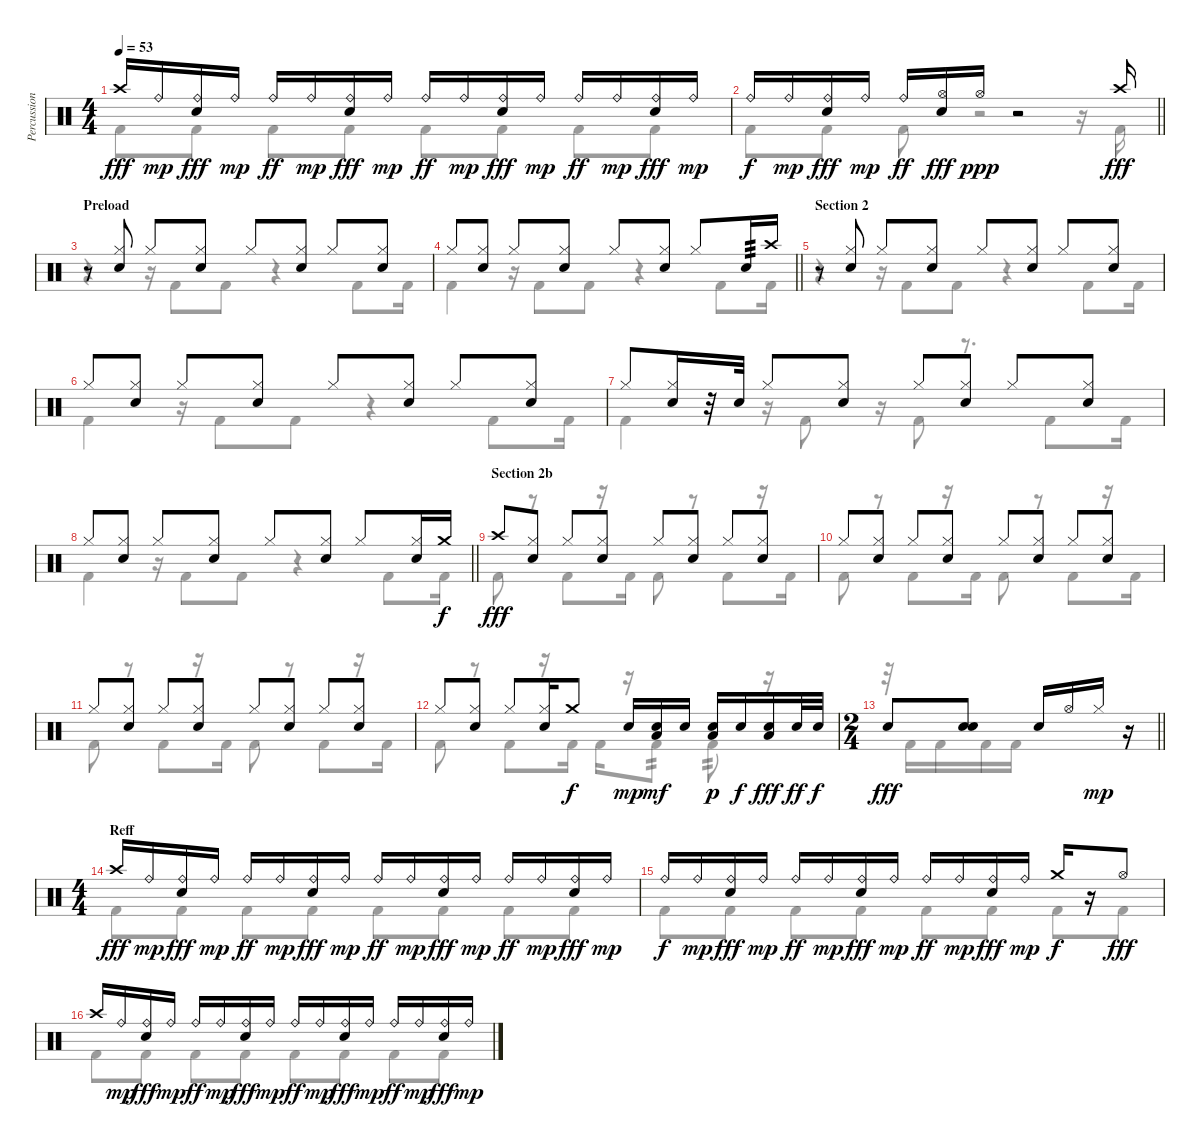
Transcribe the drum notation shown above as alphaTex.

\track ("Percussion" "Percussion") {instrument percussion}
\staff {score}
\articulation defaults
\voice
\ts (4 4)
\tempo 53
\clef neutral
\ks c "Crash high (hit)".16{dy fff} "Ride (bell)".16{dy mp}
("Ride (bell)" "Electric Snare (hit)").16{dy fff} "Ride (bell)".16{dy mp} "Ride (bell)".16{dy ff} "Ride (bell)".16{dy mp} ("Ride (bell)" "Electric Snare (hit)").16{dy fff} "Ride (bell)".16{dy mp} "Ride (bell)".16{dy ff} "Ride (bell)".16{dy mp} ("Ride (bell)" "Electric Snare (hit)").16{dy fff} "Ride (bell)".16{dy mp} "Ride (bell)".16{dy ff} "Ride (bell)".16{dy mp} ("Ride (bell)" "Electric Snare (hit)").16{dy fff} "Ride (bell)".16{dy mp} |
\barLineRight lightlight "Ride (bell)".16{dy f} "Ride (bell)".16{dy mp}
("Ride (bell)" "Electric Snare (hit)").16{dy fff} "Ride (bell)".16{dy mp} "Ride (bell)".16{dy ff} ("Hi-Hat (open)" "Electric Snare (hit)").16{dy fff} "Hi-Hat (open)".16{dy ppp} r.2 "Crash high (hit)".16{dy fff} |
\section ("" "Preload")
r.8 ("Hi-Hat (closed)" "Electric Snare (hit)").8 "Hi-Hat (closed)".8 ("Hi-Hat (closed)" "Electric Snare (hit)").8 "Hi-Hat (closed)".8 ("Hi-Hat (closed)" "Electric Snare (hit)").8 "Hi-Hat (closed)".8 ("Hi-Hat (closed)" "Electric Snare (hit)").8 |
\barLineRight lightlight "Hi-Hat (closed)".8
("Hi-Hat (closed)" "Electric Snare (hit)").8 "Hi-Hat (closed)".8 ("Hi-Hat (closed)" "Electric Snare (hit)").8 "Hi-Hat (closed)".8 ("Hi-Hat (closed)" "Electric Snare (hit)").8 "Hi-Hat (closed)".8 "Electric Snare (hit)".16{tp 3} "Crash high (hit)".16 |
\section ("" "Section 2")
r.8 ("Hi-Hat (closed)" "Electric Snare (hit)").8 "Hi-Hat (closed)".8 ("Hi-Hat (closed)" "Electric Snare (hit)").8 "Hi-Hat (closed)".8 ("Hi-Hat (closed)" "Electric Snare (hit)").8 "Hi-Hat (closed)".8 ("Hi-Hat (closed)" "Electric Snare (hit)").8 |
"Hi-Hat (closed)".8 ("Hi-Hat (closed)" "Electric Snare (hit)").8 "Hi-Hat (closed)".8 ("Hi-Hat (closed)" "Electric Snare (hit)").8 "Hi-Hat (closed)".8 ("Hi-Hat (closed)" "Electric Snare (hit)").8 "Hi-Hat (closed)".8 ("Hi-Hat (closed)" "Electric Snare (hit)").8 |
"Hi-Hat (closed)".8 ("Hi-Hat (closed)" "Electric Snare (hit)").16 r.32 "Electric Snare (hit)".32 "Hi-Hat (closed)".8 ("Hi-Hat (closed)" "Electric Snare (hit)").8 "Hi-Hat (closed)".8 ("Hi-Hat (closed)" "Electric Snare (hit)").8 "Hi-Hat (closed)".8 ("Hi-Hat (closed)" "Electric Snare (hit)").8 |
\barLineRight lightlight "Hi-Hat (closed)".8
("Hi-Hat (closed)" "Electric Snare (hit)").8 "Hi-Hat (closed)".8 ("Hi-Hat (closed)" "Electric Snare (hit)").8 "Hi-Hat (closed)".8 ("Hi-Hat (closed)" "Electric Snare (hit)").8 "Hi-Hat (closed)".8 ("Hi-Hat (closed)" "Electric Snare (hit)").16 "Crash medium (hit)".16{dy f} |
\section ("" "Section 2b")
"Crash high (hit)".8{dy fff} ("Hi-Hat (closed)" "Electric Snare (hit)").8 "Hi-Hat (closed)".8 ("Hi-Hat (closed)" "Electric Snare (hit)").8 "Hi-Hat (closed)".8 ("Hi-Hat (closed)" "Electric Snare (hit)").8 "Hi-Hat (closed)".8 ("Hi-Hat (closed)" "Electric Snare (hit)").8 |
"Hi-Hat (closed)".8 ("Hi-Hat (closed)" "Electric Snare (hit)").8 "Hi-Hat (closed)".8 ("Hi-Hat (closed)" "Electric Snare (hit)").8 "Hi-Hat (closed)".8 ("Hi-Hat (closed)" "Electric Snare (hit)").8 "Hi-Hat (closed)".8 ("Hi-Hat (closed)" "Electric Snare (hit)").8 |
"Hi-Hat (closed)".8 ("Hi-Hat (closed)" "Electric Snare (hit)").8 "Hi-Hat (closed)".8 ("Hi-Hat (closed)" "Electric Snare (hit)").8 "Hi-Hat (closed)".8 ("Hi-Hat (closed)" "Electric Snare (hit)").8 "Hi-Hat (closed)".8 ("Hi-Hat (closed)" "Electric Snare (hit)").8 |
"Hi-Hat (closed)".8 ("Hi-Hat (closed)" "Electric Snare (hit)").8 "Hi-Hat (closed)".8 ("Hi-Hat (closed)" "Electric Snare (hit)").16 "Crash medium (hit)".8{dy f} "Electric Snare (hit)".16{dy mp} ("Low Floor Tom (hit)" "Electric Snare (hit)").16{dy mf} "Electric Snare (hit)".16 ("Low Floor Tom (hit)" "Electric Snare (hit)").16{dy p} "Electric Snare (hit)".16{dy f} ("Low Floor Tom (hit)" "Electric Snare (hit)").16{dy fff} "Electric Snare (hit)".32{dy ff} "Electric Snare (hit)".32{dy f} |
\ts (2 4)
\barLineRight lightlight "Electric Snare (hit)".8{dy fff}
("Electric Snare (hit)" "Electric Snare (hit)").8{bd 60} "Electric Snare (hit)".16 "Hi-Hat (open)".16 "Hi-Hat (closed)".16{dy mp} r.16 |
\ts (4 4)
\section ("" "Reff")
"Crash high (hit)".16{dy fff} "Ride (bell)".16{dy mp} ("Ride (bell)" "Electric Snare (hit)").16{dy fff} "Ride (bell)".16{dy mp} "Ride (bell)".16{dy ff} "Ride (bell)".16{dy mp} ("Ride (bell)" "Electric Snare (hit)").16{dy fff} "Ride (bell)".16{dy mp} "Ride (bell)".16{dy ff} "Ride (bell)".16{dy mp} ("Ride (bell)" "Electric Snare (hit)").16{dy fff} "Ride (bell)".16{dy mp} "Ride (bell)".16{dy ff} "Ride (bell)".16{dy mp} ("Ride (bell)" "Electric Snare (hit)").16{dy fff} "Ride (bell)".16{dy mp} |
"Ride (bell)".16{dy f} "Ride (bell)".16{dy mp} ("Ride (bell)" "Electric Snare (hit)").16{dy fff} "Ride (bell)".16{dy mp} "Ride (bell)".16{dy ff} "Ride (bell)".16{dy mp} ("Ride (bell)" "Electric Snare (hit)").16{dy fff} "Ride (bell)".16{dy mp} "Ride (bell)".16{dy ff} "Ride (bell)".16{dy mp} ("Ride (bell)" "Electric Snare (hit)").16{dy fff} "Ride (bell)".16{dy mp} "Crash medium (hit)".16{dy f} r.16 "Hi-Hat (open)".8{dy fff} |
"Crash high (hit)".16 "Ride (bell)".16{dy mp} ("Ride (bell)" "Electric Snare (hit)").16{dy fff} "Ride (bell)".16{dy mp} "Ride (bell)".16{dy ff} "Ride (bell)".16{dy mp} ("Ride (bell)" "Electric Snare (hit)").16{dy fff} "Ride (bell)".16{dy mp} "Ride (bell)".16{dy ff} "Ride (bell)".16{dy mp} ("Ride (bell)" "Electric Snare (hit)").16{dy fff} "Ride (bell)".16{dy mp} "Ride (bell)".16{dy ff} "Ride (bell)".16{dy mp} ("Ride (bell)" "Electric Snare (hit)").16{dy fff} "Ride (bell)".16{dy mp}
\voice
\clef neutral
\ottava regular
\simile none
\ks c "Kick (hit) 2".8{dy fff} "Kick (hit) 2".8 "Kick (hit) 2".8 "Kick (hit) 2".8 "Kick (hit) 2".8 "Kick (hit) 2".8 "Kick (hit) 2".8 "Kick (hit) 2".8
|
\barLineRight lightlight "Kick (hit) 2".8 "Kick (hit) 2".8 "Kick (hit) 2".8
r.2 r.16 "Kick (hit) 2".16 |
r.4 r.16 "Kick (hit) 2".8 "Kick (hit) 2".8 r.4 "Kick (hit) 2".8 "Kick (hit) 2".16 |
\barLineRight lightlight "Kick (hit) 2".4
r.16 "Kick (hit) 2".8 "Kick (hit) 2".8 r.4 "Kick (hit) 2".8 "Kick (hit) 2".16 |
r.4 r.16 "Kick (hit) 2".8 "Kick (hit) 2".8 r.4 "Kick (hit) 2".8 "Kick (hit) 2".16 |
"Kick (hit) 2".4 r.16 "Kick (hit) 2".8 "Kick (hit) 2".8 r.4 "Kick (hit) 2".8 "Kick (hit) 2".16 |
"Kick (hit) 2".4 r.16 "Kick (hit) 2".8 r.16 "Kick (hit) 2".8 r.8{d} "Kick (hit) 2".8 "Kick (hit) 2".16 |
\barLineRight lightlight "Kick (hit) 2".4
r.16 "Kick (hit) 2".8 "Kick (hit) 2".8 r.4 "Kick (hit) 2".8 "Kick (hit) 2".16 |
"Kick (hit) 2".8 r.8 "Kick (hit) 2".8 r.16 "Kick (hit) 2".16 "Kick (hit) 2".8 r.8 "Kick (hit) 2".8 r.16 "Kick (hit) 2".16 |
"Kick (hit) 2".8 r.8 "Kick (hit) 2".8 r.16 "Kick (hit) 2".16 "Kick (hit) 2".8 r.8 "Kick (hit) 2".8 r.16 "Kick (hit) 2".16 |
"Kick (hit) 2".8 r.8 "Kick (hit) 2".8 r.16 "Kick (hit) 2".16 "Kick (hit) 2".8 r.8 "Kick (hit) 2".8 r.16 "Kick (hit) 2".16 |
"Kick (hit) 2".8 r.8 "Kick (hit) 2".8 r.16 "Kick (hit) 2".16 "Kick (hit) 2".16 r.16 "Kick (hit) 2".8{tp 2} "Kick (hit) 2".8{tp 2} r.16 |
\barLineRight lightlight
r.32 "Kick (hit) 2".16 "Kick (hit) 2".16 "Kick (hit) 2".16 "Kick (hit) 2".16 |
"Kick (hit) 2".8 "Kick (hit) 2".8 "Kick (hit) 2".8 "Kick (hit) 2".8 "Kick (hit) 2".8 "Kick (hit) 2".8 "Kick (hit) 2".8 "Kick (hit) 2".8 |
"Kick (hit) 2".8 "Kick (hit) 2".8 "Kick (hit) 2".8 "Kick (hit) 2".8 "Kick (hit) 2".8 "Kick (hit) 2".8 "Kick (hit) 2".8 "Kick (hit) 2".8 |
"Kick (hit) 2".8 "Kick (hit) 2".8 "Kick (hit) 2".8 "Kick (hit) 2".8 "Kick (hit) 2".8 "Kick (hit) 2".8 "Kick (hit) 2".8 "Kick (hit) 2".8
